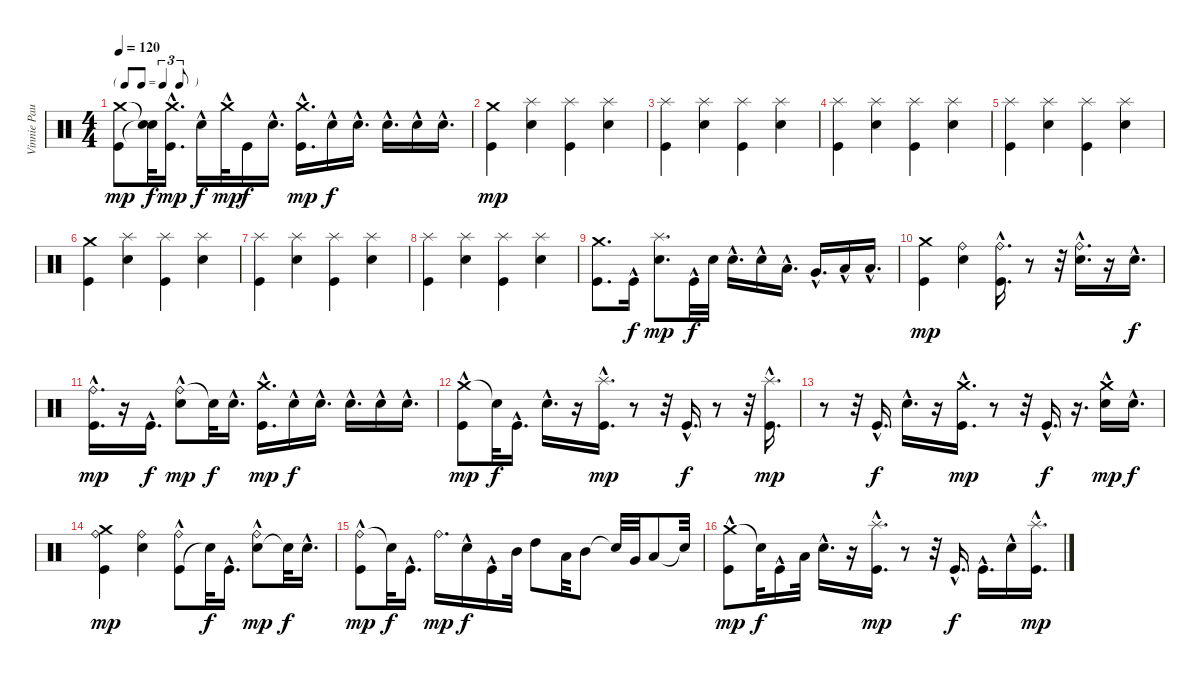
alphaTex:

\track ("Vinnie Paul (Drums)" "Vinnie Pau") {instrument percussion}
\staff {score}
\articulation defaults
\ts (4 4)
\tf triplet8th
\tempo 120
\clef neutral
\ks c
("Crash medium (hit)" "Kick (hit)").8{dy mp} ("Snare (hit)"{t} "Snare (hit)"{t}).32{dy f} ("Crash medium (hit)"{hac} "Kick (hit)").16{d dy mp} "Electric Snare (hit)"{hac}.16{dy f} "Crash medium (hit)"{hac}.32{dy mp} "Kick (hit)".16{dy f} "Electric Snare (hit)"{hac}.16{d} ("Kick (hit)" "Crash medium (hit)"{hac}).16{d dy mp} "Electric Snare (hit)"{hac}.16{dy f} "Electric Snare (hit)"{hac}.16{d} "Electric Snare (hit)"{hac}.16{d} "Electric Snare (hit)"{hac}.16 "Electric Snare (hit)"{hac}.16{d} |
("Kick (hit)" "Crash medium (hit)").4{dy mp} ("Splash (hit)" "Electric Snare (hit)").4 ("Splash (hit)" "Kick (hit)").4 ("Splash (hit)" "Electric Snare (hit)").4 |
("Kick (hit)" "Splash (hit)").4 ("Splash (hit)" "Electric Snare (hit)").4 ("Splash (hit)" "Kick (hit)").4 ("Splash (hit)" "Electric Snare (hit)").4 |
("Kick (hit)" "Splash (hit)").4 ("Electric Snare (hit)" "Splash (hit)").4 ("Kick (hit)" "Splash (hit)").4 ("Electric Snare (hit)" "Splash (hit)").4 |
("Kick (hit)" "Splash (hit)").4 ("Electric Snare (hit)" "Splash (hit)").4 ("Kick (hit)" "Splash (hit)").4 ("Electric Snare (hit)" "Splash (hit)").4 |
("Kick (hit)" "Crash medium (hit)").4 ("Splash (hit)" "Electric Snare (hit)").4 ("Splash (hit)" "Kick (hit)").4 ("Splash (hit)" "Electric Snare (hit)").4 |
("Kick (hit)" "Splash (hit)").4 ("Splash (hit)" "Electric Snare (hit)").4 ("Splash (hit)" "Kick (hit)").4 ("Splash (hit)" "Electric Snare (hit)").4 |
("Kick (hit)" "Splash (hit)").4 ("Electric Snare (hit)" "Splash (hit)").4 ("Kick (hit)" "Splash (hit)").4 ("Electric Snare (hit)" "Splash (hit)").4 |
("Kick (hit)" "Crash medium (hit)").8{d} "Kick (hit)"{hac}.16{dy f} ("Electric Snare (hit)" "Splash (hit)").8{d dy mp} "Kick (hit)"{hac}.32{dy f} "Snare (hit) 2".32 "Electric Snare (hit)"{hac}.16{d} "Electric Snare (hit)"{hac}.16 "Low Tom (hit)"{hac}.16{d} "Very Low Tom (hit)"{hac}.16{d} "Low Floor Tom (hit)"{hac}.16 "Low Floor Tom (hit)"{hac}.16{d} |
("Kick (hit)" "Crash medium (hit)").4{dy mp} ("Electric Snare (hit)" "Ride (bell)").4 ("Ride (bell)"{hac} "Kick (hit)"{hac}).16{d} r.8 r.32 ("Ride (bell)"{hac} "Electric Snare (hit)"{hac}).16{d} r.16 "Electric Snare (hit)"{hac}.16{d dy f} |
("Ride (bell)"{hac} "Kick (hit)"{hac}).16{d dy mp} r.16 "Kick (hit)"{hac}.16{d dy f} ("Ride (bell)" "Electric Snare (hit)"{hac}).8{dy mp} "Snare (hit)"{t}.32{dy f} "Electric Snare (hit)"{hac}.16{d} ("Kick (hit)" "Crash medium (hit)"{hac}).16{d dy mp} "Electric Snare (hit)"{hac}.16{dy f} "Electric Snare (hit)"{hac}.16{d} "Electric Snare (hit)"{hac}.16{d} "Electric Snare (hit)"{hac}.16 "Electric Snare (hit)"{hac}.16{d} |
("Crash medium (hit)" "Kick (hit)"{hac}).8{dy mp} "Snare (hit)"{t}.32{dy f} "Kick (hit)"{hac}.16{d} "Electric Snare (hit)"{hac}.16{d} r.16 ("Splash (hit)"{hac} "Kick (hit)"{hac}).16{d dy mp} r.8 r.32 "Kick (hit)"{hac}.16{d dy f} r.8 r.32 ("Splash (hit)"{hac} "Kick (hit)"{hac}).16{d dy mp} |
r.8 r.32 "Kick (hit)"{hac}.16{d dy f} "Electric Snare (hit)"{hac}.16{d} r.16 ("Crash medium (hit)"{hac} "Kick (hit)"{hac}).16{d dy mp} r.8 r.32 "Kick (hit)"{hac}.16{d dy f} r.16{d} ("Electric Snare (hit)"{hac} "Crash medium (hit)"{hac}).16{dy mp} "Electric Snare (hit)"{hac}.16{d dy f} |
("Crash medium (hit)" "Kick (hit)" "Ride (bell)").4{dy mp} ("Electric Snare (hit)" "Ride (bell)").4 ("Kick (hit)"{hac} "Ride (bell)").8 "Snare (hit)"{t}.32{dy f} "Kick (hit)"{hac}.16{d} ("Electric Snare (hit)"{hac} "Ride (bell)").8{dy mp} "Snare (hit)"{t}.32{dy f} "Electric Snare (hit)"{hac}.16{d} |
("Ride (bell)" "Kick (hit)"{hac}).8{dy mp} "Snare (hit)"{t}.32{dy f} "Kick (hit)"{hac}.16{d} "Ride (bell)".16{d dy mp} "Electric Snare (hit)"{hac}.16{dy f} "Kick (hit)"{hac}.16 "Mid Tom (hit)".32 "High Tom (hit)".8 "Low Tom (hit)".32 "Mid Tom (hit)".8 "Snare (hit)"{t}.32 "Very Low Tom (hit)".32 "Low Tom (hit)".8 "Snare (hit)"{t}.32 |
("Crash medium (hit)" "Kick (hit)"{hac}).8{dy mp} "Snare (hit)"{t}.32{dy f} "Kick (hit)"{hac}.16 "Low Floor Tom (hit)".32 "Electric Snare (hit)"{hac}.16{d} r.16 ("Splash (hit)"{hac} "Kick (hit)"{hac}).16{d dy mp} r.8 r.32 "Kick (hit)"{hac}.16{d dy f} "Kick (hit)"{hac}.16{d} "Electric Snare (hit)"{hac}.16 ("Splash (hit)"{hac} "Kick (hit)"{hac}).16{d dy mp}
